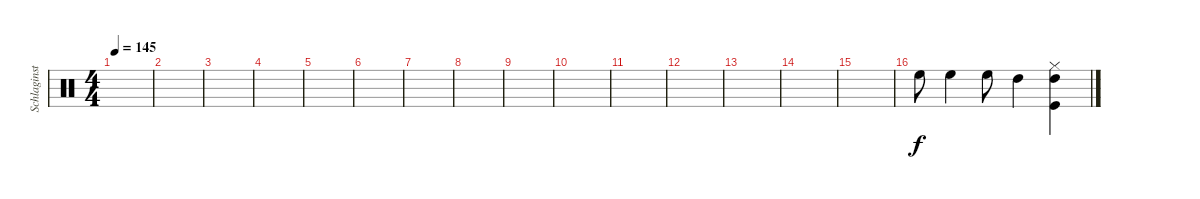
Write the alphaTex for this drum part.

\track ("Schlaginstrumente - Auswahl" "Schlaginst") {instrument percussion}
\staff {score}
\articulation defaults
\ts (4 4)
\tempo 145
\clef neutral
\ks c
|
|
|
|
|
|
|
|
|
|
|
|
|
|
|
"High Floor Tom (hit)".8 "High Floor Tom (hit)".4 "High Floor Tom (hit)".8 "High Tom (hit)".4 ("High Tom (hit)" "Kick (hit)" "Hi-Hat (closed)").4
